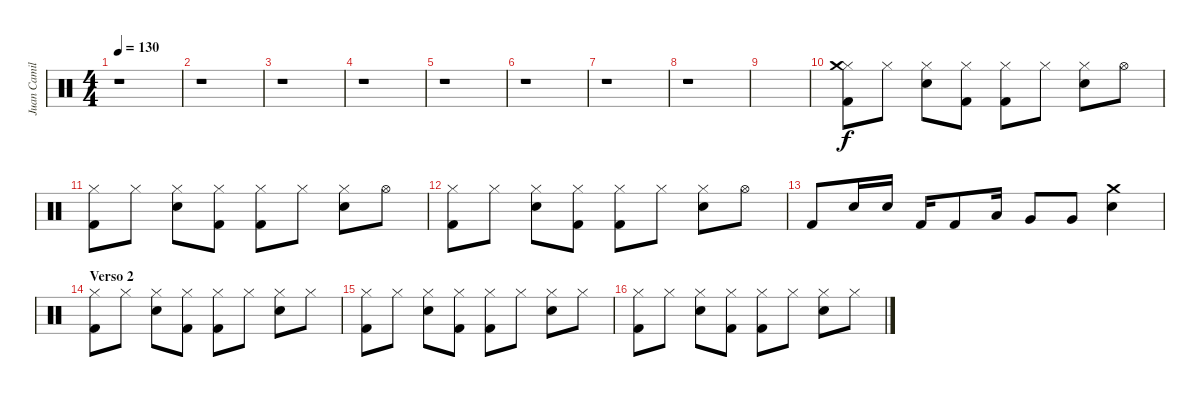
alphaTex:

\track ("Juan Camilo" "Juan Camil") {instrument percussion}
\staff {score}
\articulation defaults
\ts (4 4)
\tempo 130
\clef neutral
\ks c
r.1{dy f} |
r.1 |
r.1 |
r.1 |
r.1 |
r.1 |
r.1 |
r.1 |
|
("Hi-Hat (closed)" "Kick (hit) 2" "Crash medium (hit)").8 "Hi-Hat (closed)".8 ("Hi-Hat (closed)" "Electric Snare (hit)").8 ("Hi-Hat (closed)" "Kick (hit) 2").8 ("Hi-Hat (closed)" "Kick (hit) 2").8 "Hi-Hat (closed)".8 ("Hi-Hat (closed)" "Electric Snare (hit)").8 "Hi-Hat (open)".8 |
("Hi-Hat (closed)" "Kick (hit) 2").8 "Hi-Hat (closed)".8 ("Hi-Hat (closed)" "Electric Snare (hit)").8 ("Hi-Hat (closed)" "Kick (hit) 2").8 ("Hi-Hat (closed)" "Kick (hit) 2").8 "Hi-Hat (closed)".8 ("Hi-Hat (closed)" "Electric Snare (hit)").8 "Hi-Hat (open)".8 |
("Hi-Hat (closed)" "Kick (hit) 2").8 "Hi-Hat (closed)".8 ("Hi-Hat (closed)" "Electric Snare (hit)").8 ("Hi-Hat (closed)" "Kick (hit) 2").8 ("Hi-Hat (closed)" "Kick (hit) 2").8 "Hi-Hat (closed)".8 ("Hi-Hat (closed)" "Electric Snare (hit)").8 "Hi-Hat (open)".8 |
"Kick (hit) 2".8 "Electric Snare (hit)".16 "Electric Snare (hit)".16 "Kick (hit) 2".16 "Kick (hit) 2".8 "Low Tom (hit)".16 "Very Low Tom (hit)".8 "Very Low Tom (hit)".8 ("Electric Snare (hit)" "Crash medium (hit)").4 |
\section ("" "Verso 2")
("Hi-Hat (closed)" "Kick (hit) 2").8 "Hi-Hat (closed)".8 ("Hi-Hat (closed)" "Electric Snare (hit)").8 ("Hi-Hat (closed)" "Kick (hit) 2").8 ("Hi-Hat (closed)" "Kick (hit) 2").8 "Hi-Hat (closed)".8 ("Hi-Hat (closed)" "Electric Snare (hit)").8 "Hi-Hat (closed)".8 |
("Hi-Hat (closed)" "Kick (hit) 2").8 "Hi-Hat (closed)".8 ("Hi-Hat (closed)" "Electric Snare (hit)").8 ("Hi-Hat (closed)" "Kick (hit) 2").8 ("Hi-Hat (closed)" "Kick (hit) 2").8 "Hi-Hat (closed)".8 ("Hi-Hat (closed)" "Electric Snare (hit)").8 "Hi-Hat (closed)".8 |
("Hi-Hat (closed)" "Kick (hit) 2").8 "Hi-Hat (closed)".8 ("Hi-Hat (closed)" "Electric Snare (hit)").8 ("Hi-Hat (closed)" "Kick (hit) 2").8 ("Hi-Hat (closed)" "Kick (hit) 2").8 "Hi-Hat (closed)".8 ("Hi-Hat (closed)" "Electric Snare (hit)").8 "Hi-Hat (closed)".8
